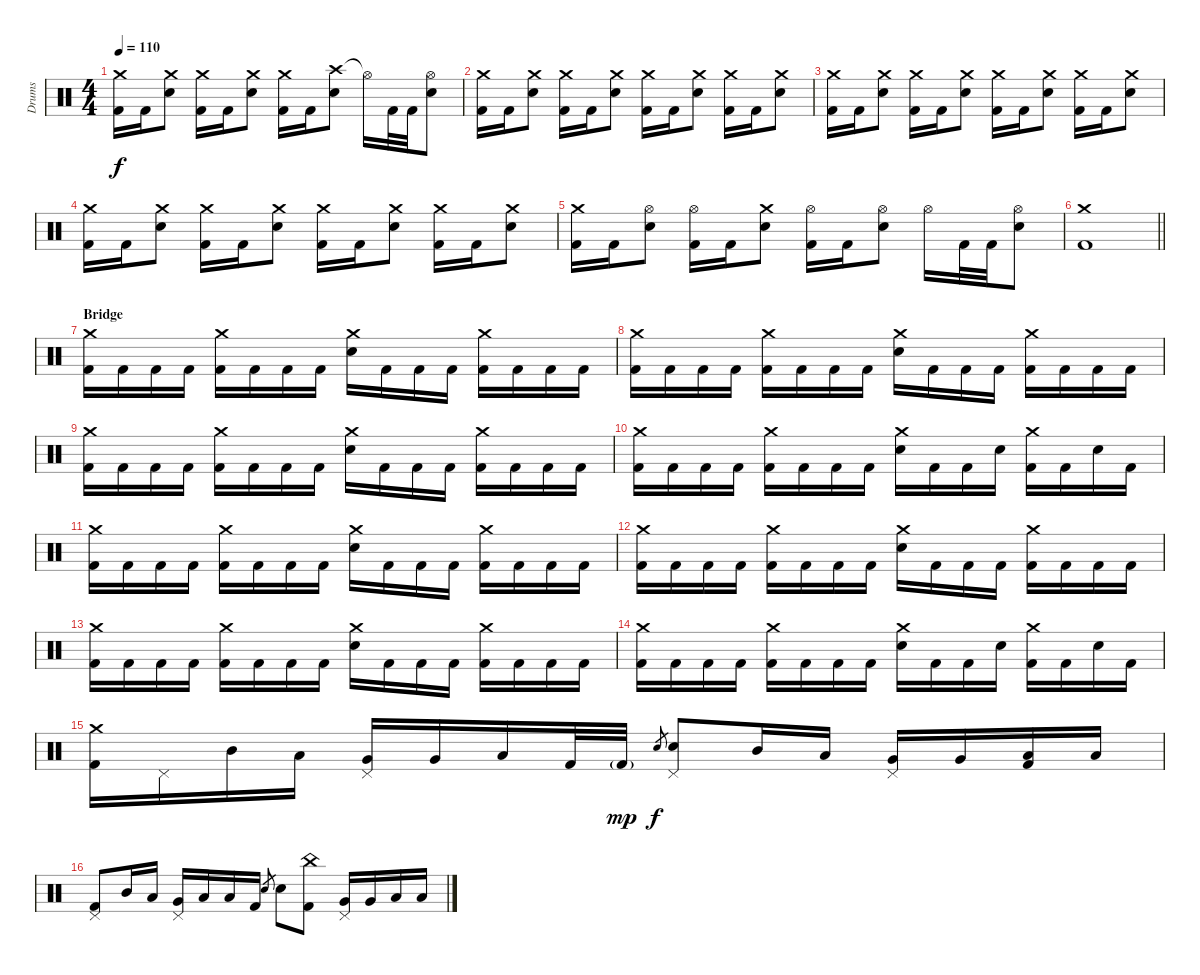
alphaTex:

\track ("Drums" "Drums") {instrument percussion}
\staff {score}
\articulation defaults
\ts (4 4)
\tempo 110
\clef neutral
\ks c
("Crash medium (hit)" "Kick (hit) 2").16{dy f} "Kick (hit) 2".16 ("Crash medium (hit)" "Electric Snare (hit)").8 ("Crash medium (hit)" "Kick (hit) 2").16 "Kick (hit) 2".16 ("Crash medium (hit)" "Electric Snare (hit)").8 ("Crash medium (hit)" "Kick (hit) 2").16 "Kick (hit) 2".16 ("Crash high (hit)" "Electric Snare (hit)").8 "Hi-Hat (open)"{t}.16 "Kick (hit) 2".32 "Kick (hit) 2".32 ("Hi-Hat (open)" "Electric Snare (hit)").8 |
("Crash medium (hit)" "Kick (hit) 2").16 "Kick (hit) 2".16 ("Crash medium (hit)" "Electric Snare (hit)").8 ("Crash medium (hit)" "Kick (hit) 2").16 "Kick (hit) 2".16 ("Crash medium (hit)" "Electric Snare (hit)").8 ("Crash medium (hit)" "Kick (hit) 2").16 "Kick (hit) 2".16 ("Crash medium (hit)" "Electric Snare (hit)").8 ("Crash medium (hit)" "Kick (hit) 2").16 "Kick (hit) 2".16 ("Crash medium (hit)" "Electric Snare (hit)").8 |
("Crash medium (hit)" "Kick (hit) 2").16 "Kick (hit) 2".16 ("Crash medium (hit)" "Electric Snare (hit)").8 ("Crash medium (hit)" "Kick (hit) 2").16 "Kick (hit) 2".16 ("Crash medium (hit)" "Electric Snare (hit)").8 ("Crash medium (hit)" "Kick (hit) 2").16 "Kick (hit) 2".16 ("Crash medium (hit)" "Electric Snare (hit)").8 ("Crash medium (hit)" "Kick (hit) 2").16 "Kick (hit) 2".16 ("Crash medium (hit)" "Electric Snare (hit)").8 |
("Crash medium (hit)" "Kick (hit) 2").16 "Kick (hit) 2".16 ("Crash medium (hit)" "Electric Snare (hit)").8 ("Crash medium (hit)" "Kick (hit) 2").16 "Kick (hit) 2".16 ("Crash medium (hit)" "Electric Snare (hit)").8 ("Crash medium (hit)" "Kick (hit) 2").16 "Kick (hit) 2".16 ("Crash medium (hit)" "Electric Snare (hit)").8 ("Crash medium (hit)" "Kick (hit) 2").16 "Kick (hit) 2".16 ("Crash medium (hit)" "Electric Snare (hit)").8 |
("Crash medium (hit)" "Kick (hit) 2").16 "Kick (hit) 2".16 ("Hi-Hat (open)" "Electric Snare (hit)").8 ("Hi-Hat (open)" "Kick (hit) 2").16 "Kick (hit) 2".16 ("Crash medium (hit)" "Electric Snare (hit)").8 ("Hi-Hat (open)" "Kick (hit) 2").16 "Kick (hit) 2".16 ("Hi-Hat (open)" "Electric Snare (hit)").8 "Hi-Hat (open)".16 "Kick (hit) 2".32 "Kick (hit) 2".32 ("Hi-Hat (open)" "Electric Snare (hit)").8 |
\barLineRight lightlight
("Crash medium (hit)" "Kick (hit) 2").1 |
\section ("" "Bridge")
("Crash medium (hit)" "Kick (hit) 2").16 "Kick (hit) 2".16 "Kick (hit) 2".16 "Kick (hit) 2".16 ("Crash medium (hit)" "Kick (hit) 2").16 "Kick (hit) 2".16 "Kick (hit) 2".16 "Kick (hit) 2".16 ("Crash medium (hit)" "Electric Snare (hit)").16 "Kick (hit) 2".16 "Kick (hit) 2".16 "Kick (hit) 2".16 ("Crash medium (hit)" "Kick (hit) 2").16 "Kick (hit) 2".16 "Kick (hit) 2".16 "Kick (hit) 2".16 |
("Crash medium (hit)" "Kick (hit) 2").16 "Kick (hit) 2".16 "Kick (hit) 2".16 "Kick (hit) 2".16 ("Crash medium (hit)" "Kick (hit) 2").16 "Kick (hit) 2".16 "Kick (hit) 2".16 "Kick (hit) 2".16 ("Crash medium (hit)" "Electric Snare (hit)").16 "Kick (hit) 2".16 "Kick (hit) 2".16 "Kick (hit) 2".16 ("Crash medium (hit)" "Kick (hit) 2").16 "Kick (hit) 2".16 "Kick (hit) 2".16 "Kick (hit) 2".16 |
("Crash medium (hit)" "Kick (hit) 2").16 "Kick (hit) 2".16 "Kick (hit) 2".16 "Kick (hit) 2".16 ("Crash medium (hit)" "Kick (hit) 2").16 "Kick (hit) 2".16 "Kick (hit) 2".16 "Kick (hit) 2".16 ("Crash medium (hit)" "Electric Snare (hit)").16 "Kick (hit) 2".16 "Kick (hit) 2".16 "Kick (hit) 2".16 ("Crash medium (hit)" "Kick (hit) 2").16 "Kick (hit) 2".16 "Kick (hit) 2".16 "Kick (hit) 2".16 |
("Crash medium (hit)" "Kick (hit) 2").16 "Kick (hit) 2".16 "Kick (hit) 2".16 "Kick (hit) 2".16 ("Crash medium (hit)" "Kick (hit) 2").16 "Kick (hit) 2".16 "Kick (hit) 2".16 "Kick (hit) 2".16 ("Crash medium (hit)" "Electric Snare (hit)").16 "Kick (hit) 2".16 "Kick (hit) 2".16 "Electric Snare (hit)".16 ("Crash medium (hit)" "Kick (hit) 2").16 "Kick (hit) 2".16 "Electric Snare (hit)".16 "Kick (hit) 2".16 |
("Crash medium (hit)" "Kick (hit) 2").16 "Kick (hit) 2".16 "Kick (hit) 2".16 "Kick (hit) 2".16 ("Crash medium (hit)" "Kick (hit) 2").16 "Kick (hit) 2".16 "Kick (hit) 2".16 "Kick (hit) 2".16 ("Crash medium (hit)" "Electric Snare (hit)").16 "Kick (hit) 2".16 "Kick (hit) 2".16 "Kick (hit) 2".16 ("Crash medium (hit)" "Kick (hit) 2").16 "Kick (hit) 2".16 "Kick (hit) 2".16 "Kick (hit) 2".16 |
("Crash medium (hit)" "Kick (hit) 2").16 "Kick (hit) 2".16 "Kick (hit) 2".16 "Kick (hit) 2".16 ("Crash medium (hit)" "Kick (hit) 2").16 "Kick (hit) 2".16 "Kick (hit) 2".16 "Kick (hit) 2".16 ("Crash medium (hit)" "Electric Snare (hit)").16 "Kick (hit) 2".16 "Kick (hit) 2".16 "Kick (hit) 2".16 ("Crash medium (hit)" "Kick (hit) 2").16 "Kick (hit) 2".16 "Kick (hit) 2".16 "Kick (hit) 2".16 |
("Crash medium (hit)" "Kick (hit) 2").16 "Kick (hit) 2".16 "Kick (hit) 2".16 "Kick (hit) 2".16 ("Crash medium (hit)" "Kick (hit) 2").16 "Kick (hit) 2".16 "Kick (hit) 2".16 "Kick (hit) 2".16 ("Crash medium (hit)" "Electric Snare (hit)").16 "Kick (hit) 2".16 "Kick (hit) 2".16 "Kick (hit) 2".16 ("Crash medium (hit)" "Kick (hit) 2").16 "Kick (hit) 2".16 "Kick (hit) 2".16 "Kick (hit) 2".16 |
("Crash medium (hit)" "Kick (hit) 2").16 "Kick (hit) 2".16 "Kick (hit) 2".16 "Kick (hit) 2".16 ("Crash medium (hit)" "Kick (hit) 2").16 "Kick (hit) 2".16 "Kick (hit) 2".16 "Kick (hit) 2".16 ("Crash medium (hit)" "Electric Snare (hit)").16 "Kick (hit) 2".16 "Kick (hit) 2".16 "Electric Snare (hit)".16 ("Crash medium (hit)" "Kick (hit) 2").16 "Kick (hit) 2".16 "Electric Snare (hit)".16 "Kick (hit) 2".16 |
("Crash medium (hit)" "Kick (hit) 2").16 "Pedal Hi-Hat (hit)".16 "Mid Tom (hit)".16 "Low Tom (hit)".16 ("Pedal Hi-Hat (hit)" "Very Low Tom (hit)").16 "Very Low Tom (hit)".16 "Low Floor Tom (hit)".16 "Kick (hit) 2".32 "Kick (hit) 2"{g}.32{dy mp} "Electric Snare (hit)".8{gr dy f} ("Pedal Hi-Hat (hit)" "Electric Snare (hit)").8 "Mid Tom (hit)".16 "Low Tom (hit)".16 ("Pedal Hi-Hat (hit)" "Very Low Tom (hit)").16 "Very Low Tom (hit)".16 ("Low Floor Tom (hit)" "Kick (hit) 2").16 "Low Floor Tom (hit)".16 |
("Pedal Hi-Hat (hit)" "Kick (hit) 2").8 "Mid Tom (hit)".16 "Low Tom (hit)".16 ("Pedal Hi-Hat (hit)" "Very Low Tom (hit)").16 "Low Floor Tom (hit)".16 "Low Floor Tom (hit)".16 "Kick (hit) 2".16 "Electric Snare (hit)".8{gr} "Electric Snare (hit)".8 ("China (hit)" "Kick (hit) 2").8 ("Pedal Hi-Hat (hit)" "Very Low Tom (hit)").16 "Very Low Tom (hit)".16 "Low Floor Tom (hit)".16 "Low Floor Tom (hit)".16
